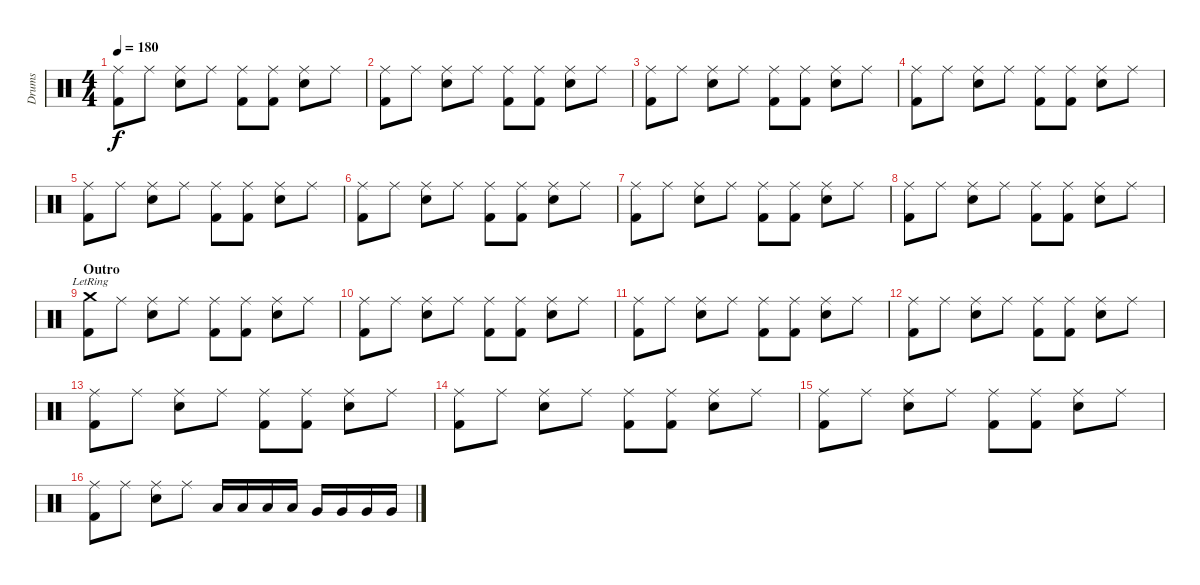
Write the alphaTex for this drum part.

\track ("Drums" "Drums") {instrument percussion}
\staff {score}
\articulation defaults
\ts (4 4)
\tempo 180
\clef neutral
\ks c
("Ride (middle)" "Kick (hit) 2").8{dy f} "Ride (middle)".8 ("Ride (middle)" "Electric Snare (hit)").8 "Ride (middle)".8 ("Ride (middle)" "Kick (hit) 2").8 ("Ride (middle)" "Kick (hit) 2").8 ("Ride (middle)" "Electric Snare (hit)").8 "Ride (middle)".8 |
("Ride (middle)" "Kick (hit) 2").8 "Ride (middle)".8 ("Ride (middle)" "Electric Snare (hit)").8 "Ride (middle)".8 ("Ride (middle)" "Kick (hit) 2").8 ("Ride (middle)" "Kick (hit) 2").8 ("Ride (middle)" "Electric Snare (hit)").8 "Ride (middle)".8 |
("Ride (middle)" "Kick (hit) 2").8 "Ride (middle)".8 ("Ride (middle)" "Electric Snare (hit)").8 "Ride (middle)".8 ("Ride (middle)" "Kick (hit) 2").8 ("Ride (middle)" "Kick (hit) 2").8 ("Ride (middle)" "Electric Snare (hit)").8 "Ride (middle)".8 |
("Ride (middle)" "Kick (hit) 2").8 "Ride (middle)".8 ("Ride (middle)" "Electric Snare (hit)").8 "Ride (middle)".8 ("Ride (middle)" "Kick (hit) 2").8 ("Ride (middle)" "Kick (hit) 2").8 ("Ride (middle)" "Electric Snare (hit)").8 "Ride (middle)".8 |
("Ride (middle)" "Kick (hit) 2").8 "Ride (middle)".8 ("Ride (middle)" "Electric Snare (hit)").8 "Ride (middle)".8 ("Ride (middle)" "Kick (hit) 2").8 ("Ride (middle)" "Kick (hit) 2").8 ("Ride (middle)" "Electric Snare (hit)").8 "Ride (middle)".8 |
("Ride (middle)" "Kick (hit) 2").8 "Ride (middle)".8 ("Ride (middle)" "Electric Snare (hit)").8 "Ride (middle)".8 ("Ride (middle)" "Kick (hit) 2").8 ("Ride (middle)" "Kick (hit) 2").8 ("Ride (middle)" "Electric Snare (hit)").8 "Ride (middle)".8 |
("Ride (middle)" "Kick (hit) 2").8 "Ride (middle)".8 ("Ride (middle)" "Electric Snare (hit)").8 "Ride (middle)".8 ("Ride (middle)" "Kick (hit) 2").8 ("Ride (middle)" "Kick (hit) 2").8 ("Ride (middle)" "Electric Snare (hit)").8 "Ride (middle)".8 |
("Ride (middle)" "Kick (hit) 2").8 "Ride (middle)".8 ("Ride (middle)" "Electric Snare (hit)").8 "Ride (middle)".8 ("Ride (middle)" "Kick (hit) 2").8 ("Ride (middle)" "Kick (hit) 2").8 ("Ride (middle)" "Electric Snare (hit)").8 "Ride (middle)".8 |
\section ("" "Outro")
("Crash medium (hit)"{lr} "Kick (hit) 2").8 "Ride (middle)".8 ("Ride (middle)" "Electric Snare (hit)").8 "Ride (middle)".8 ("Ride (middle)" "Kick (hit) 2").8 ("Ride (middle)" "Kick (hit) 2").8 ("Ride (middle)" "Electric Snare (hit)").8 "Ride (middle)".8 |
("Ride (middle)" "Kick (hit) 2").8 "Ride (middle)".8 ("Ride (middle)" "Electric Snare (hit)").8 "Ride (middle)".8 ("Ride (middle)" "Kick (hit) 2").8 ("Ride (middle)" "Kick (hit) 2").8 ("Ride (middle)" "Electric Snare (hit)").8 "Ride (middle)".8 |
("Ride (middle)" "Kick (hit) 2").8 "Ride (middle)".8 ("Ride (middle)" "Electric Snare (hit)").8 "Ride (middle)".8 ("Ride (middle)" "Kick (hit) 2").8 ("Ride (middle)" "Kick (hit) 2").8 ("Ride (middle)" "Electric Snare (hit)").8 "Ride (middle)".8 |
("Ride (middle)" "Kick (hit) 2").8 "Ride (middle)".8 ("Ride (middle)" "Electric Snare (hit)").8 "Ride (middle)".8 ("Ride (middle)" "Kick (hit) 2").8 ("Ride (middle)" "Kick (hit) 2").8 ("Ride (middle)" "Electric Snare (hit)").8 "Ride (middle)".8 |
("Ride (middle)" "Kick (hit) 2").8 "Ride (middle)".8 ("Ride (middle)" "Electric Snare (hit)").8 "Ride (middle)".8 ("Ride (middle)" "Kick (hit) 2").8 ("Ride (middle)" "Kick (hit) 2").8 ("Ride (middle)" "Electric Snare (hit)").8 "Ride (middle)".8 |
("Ride (middle)" "Kick (hit) 2").8 "Ride (middle)".8 ("Ride (middle)" "Electric Snare (hit)").8 "Ride (middle)".8 ("Ride (middle)" "Kick (hit) 2").8 ("Ride (middle)" "Kick (hit) 2").8 ("Ride (middle)" "Electric Snare (hit)").8 "Ride (middle)".8 |
("Ride (middle)" "Kick (hit) 2").8 "Ride (middle)".8 ("Ride (middle)" "Electric Snare (hit)").8 "Ride (middle)".8 ("Ride (middle)" "Kick (hit) 2").8 ("Ride (middle)" "Kick (hit) 2").8 ("Ride (middle)" "Electric Snare (hit)").8 "Ride (middle)".8 |
("Ride (middle)" "Kick (hit) 2").8 "Ride (middle)".8 ("Ride (middle)" "Electric Snare (hit)").8 "Ride (middle)".8 "Low Tom (hit)".16 "Low Tom (hit)".16 "Low Tom (hit)".16 "Low Tom (hit)".16 "Very Low Tom (hit)".16 "Very Low Tom (hit)".16 "Very Low Tom (hit)".16 "Very Low Tom (hit)".16
